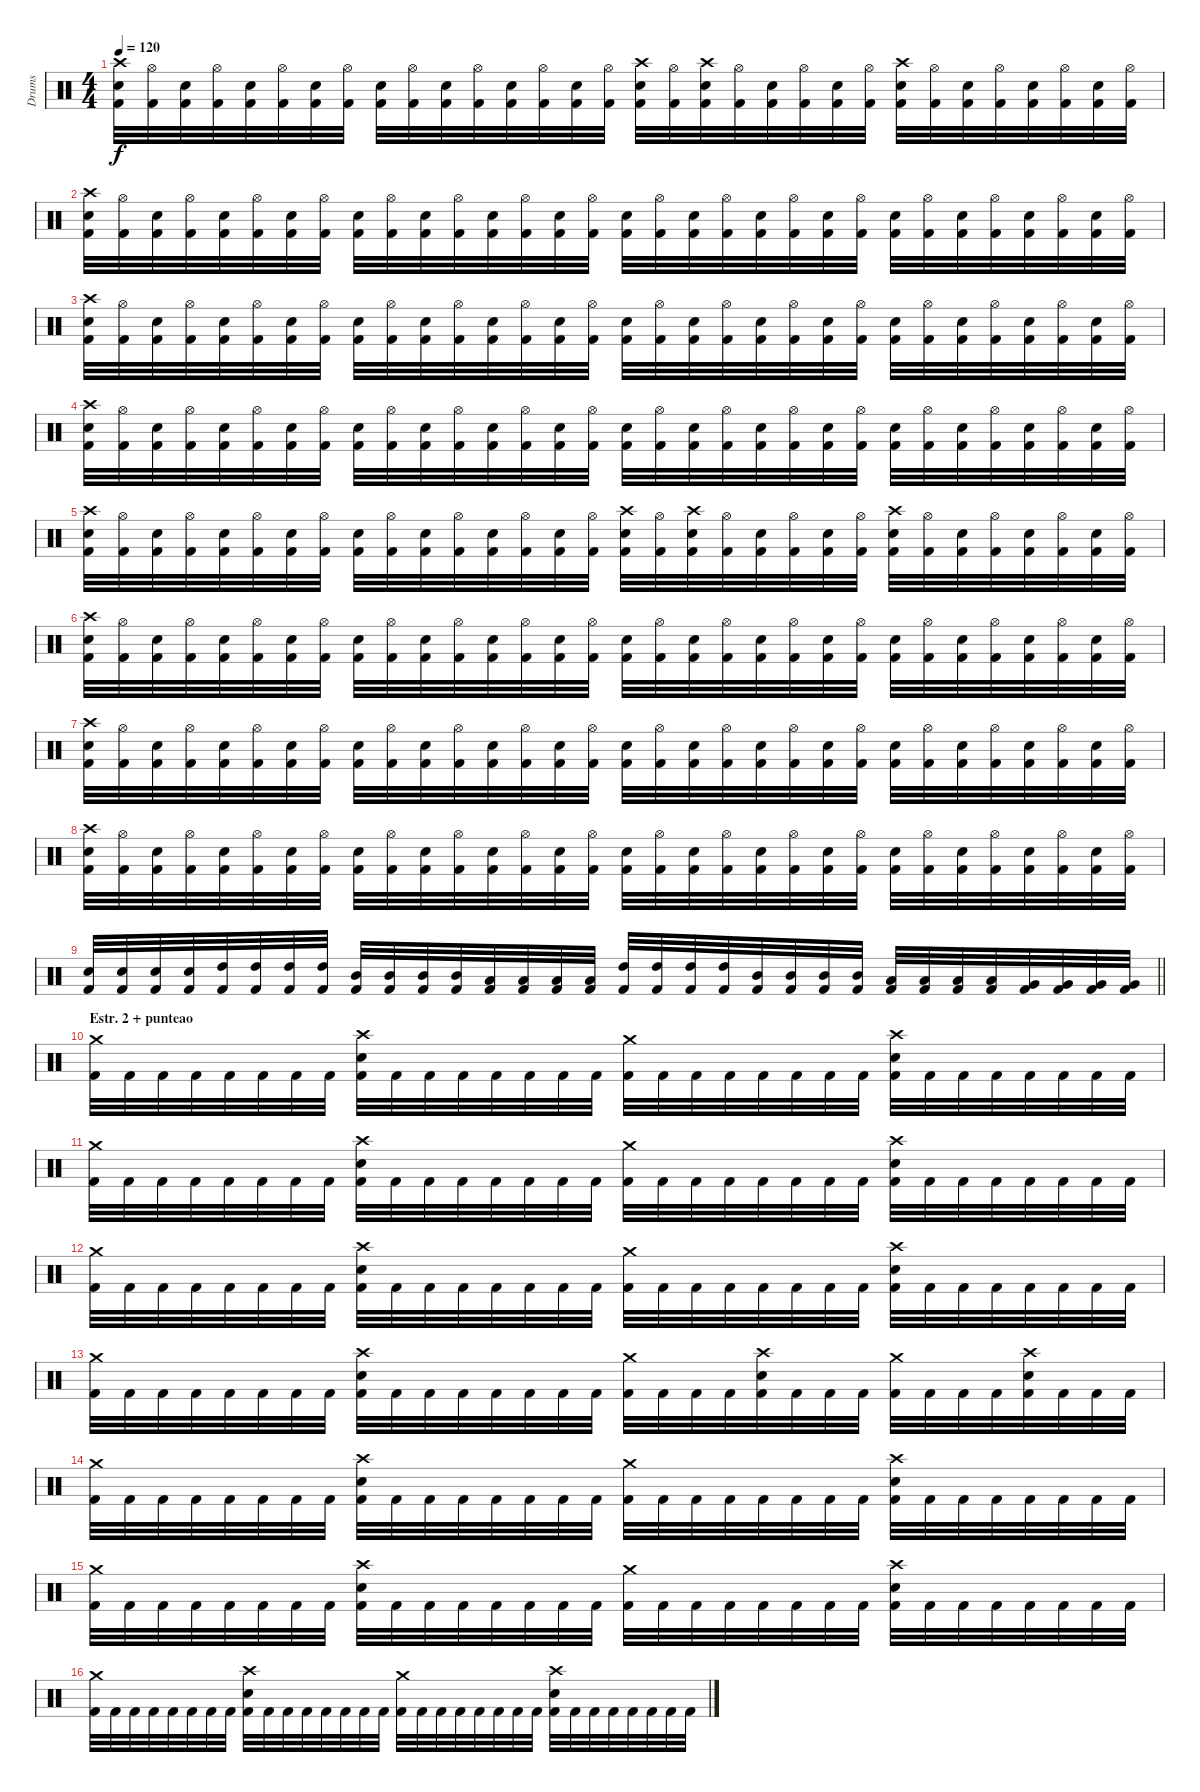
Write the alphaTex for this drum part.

\track ("Drums" "Drums") {instrument percussion}
\staff {score}
\articulation defaults
\ts (4 4)
\tempo 120
\clef neutral
\ks c
("Kick (hit) 2" "Electric Snare (hit)" "Crash high (hit)").32{dy f} ("Kick (hit) 2" "Hi-Hat (open)").32 ("Kick (hit) 2" "Electric Snare (hit)").32 ("Kick (hit) 2" "Hi-Hat (open)").32 ("Kick (hit) 2" "Electric Snare (hit)").32 ("Kick (hit) 2" "Hi-Hat (open)").32 ("Kick (hit) 2" "Electric Snare (hit)").32 ("Kick (hit) 2" "Hi-Hat (open)").32 ("Kick (hit) 2" "Electric Snare (hit)").32 ("Kick (hit) 2" "Hi-Hat (open)").32 ("Kick (hit) 2" "Electric Snare (hit)").32 ("Kick (hit) 2" "Hi-Hat (open)").32 ("Kick (hit) 2" "Electric Snare (hit)").32 ("Kick (hit) 2" "Hi-Hat (open)").32 ("Kick (hit) 2" "Electric Snare (hit)").32 ("Kick (hit) 2" "Hi-Hat (open)").32 ("Kick (hit) 2" "Electric Snare (hit)" "Crash high (hit)").32 ("Kick (hit) 2" "Hi-Hat (open)").32 ("Kick (hit) 2" "Electric Snare (hit)" "Crash high (hit)").32 ("Kick (hit) 2" "Hi-Hat (open)").32 ("Kick (hit) 2" "Electric Snare (hit)").32 ("Kick (hit) 2" "Hi-Hat (open)").32 ("Kick (hit) 2" "Electric Snare (hit)").32 ("Kick (hit) 2" "Hi-Hat (open)").32 ("Kick (hit) 2" "Electric Snare (hit)" "Crash high (hit)").32 ("Kick (hit) 2" "Hi-Hat (open)").32 ("Kick (hit) 2" "Electric Snare (hit)").32 ("Kick (hit) 2" "Hi-Hat (open)").32 ("Kick (hit) 2" "Electric Snare (hit)").32 ("Kick (hit) 2" "Hi-Hat (open)").32 ("Kick (hit) 2" "Electric Snare (hit)").32 ("Kick (hit) 2" "Hi-Hat (open)").32 |
("Kick (hit) 2" "Electric Snare (hit)" "Crash high (hit)").32 ("Kick (hit) 2" "Hi-Hat (open)").32 ("Kick (hit) 2" "Electric Snare (hit)").32 ("Kick (hit) 2" "Hi-Hat (open)").32 ("Kick (hit) 2" "Electric Snare (hit)").32 ("Kick (hit) 2" "Hi-Hat (open)").32 ("Kick (hit) 2" "Electric Snare (hit)").32 ("Kick (hit) 2" "Hi-Hat (open)").32 ("Kick (hit) 2" "Electric Snare (hit)").32 ("Kick (hit) 2" "Hi-Hat (open)").32 ("Kick (hit) 2" "Electric Snare (hit)").32 ("Kick (hit) 2" "Hi-Hat (open)").32 ("Kick (hit) 2" "Electric Snare (hit)").32 ("Kick (hit) 2" "Hi-Hat (open)").32 ("Kick (hit) 2" "Electric Snare (hit)").32 ("Kick (hit) 2" "Hi-Hat (open)").32 ("Kick (hit) 2" "Electric Snare (hit)").32 ("Kick (hit) 2" "Hi-Hat (open)").32 ("Kick (hit) 2" "Electric Snare (hit)").32 ("Kick (hit) 2" "Hi-Hat (open)").32 ("Kick (hit) 2" "Electric Snare (hit)").32 ("Kick (hit) 2" "Hi-Hat (open)").32 ("Kick (hit) 2" "Electric Snare (hit)").32 ("Kick (hit) 2" "Hi-Hat (open)").32 ("Kick (hit) 2" "Electric Snare (hit)").32 ("Kick (hit) 2" "Hi-Hat (open)").32 ("Kick (hit) 2" "Electric Snare (hit)").32 ("Kick (hit) 2" "Hi-Hat (open)").32 ("Kick (hit) 2" "Electric Snare (hit)").32 ("Kick (hit) 2" "Hi-Hat (open)").32 ("Kick (hit) 2" "Electric Snare (hit)").32 ("Kick (hit) 2" "Hi-Hat (open)").32 |
("Kick (hit) 2" "Electric Snare (hit)" "Crash high (hit)").32 ("Kick (hit) 2" "Hi-Hat (open)").32 ("Kick (hit) 2" "Electric Snare (hit)").32 ("Kick (hit) 2" "Hi-Hat (open)").32 ("Kick (hit) 2" "Electric Snare (hit)").32 ("Kick (hit) 2" "Hi-Hat (open)").32 ("Kick (hit) 2" "Electric Snare (hit)").32 ("Kick (hit) 2" "Hi-Hat (open)").32 ("Kick (hit) 2" "Electric Snare (hit)").32 ("Kick (hit) 2" "Hi-Hat (open)").32 ("Kick (hit) 2" "Electric Snare (hit)").32 ("Kick (hit) 2" "Hi-Hat (open)").32 ("Kick (hit) 2" "Electric Snare (hit)").32 ("Kick (hit) 2" "Hi-Hat (open)").32 ("Kick (hit) 2" "Electric Snare (hit)").32 ("Kick (hit) 2" "Hi-Hat (open)").32 ("Kick (hit) 2" "Electric Snare (hit)").32 ("Kick (hit) 2" "Hi-Hat (open)").32 ("Kick (hit) 2" "Electric Snare (hit)").32 ("Kick (hit) 2" "Hi-Hat (open)").32 ("Kick (hit) 2" "Electric Snare (hit)").32 ("Kick (hit) 2" "Hi-Hat (open)").32 ("Kick (hit) 2" "Electric Snare (hit)").32 ("Kick (hit) 2" "Hi-Hat (open)").32 ("Kick (hit) 2" "Electric Snare (hit)").32 ("Kick (hit) 2" "Hi-Hat (open)").32 ("Kick (hit) 2" "Electric Snare (hit)").32 ("Kick (hit) 2" "Hi-Hat (open)").32 ("Kick (hit) 2" "Electric Snare (hit)").32 ("Kick (hit) 2" "Hi-Hat (open)").32 ("Kick (hit) 2" "Electric Snare (hit)").32 ("Kick (hit) 2" "Hi-Hat (open)").32 |
("Kick (hit) 2" "Electric Snare (hit)" "Crash high (hit)").32 ("Kick (hit) 2" "Hi-Hat (open)").32 ("Kick (hit) 2" "Electric Snare (hit)").32 ("Kick (hit) 2" "Hi-Hat (open)").32 ("Kick (hit) 2" "Electric Snare (hit)").32 ("Kick (hit) 2" "Hi-Hat (open)").32 ("Kick (hit) 2" "Electric Snare (hit)").32 ("Kick (hit) 2" "Hi-Hat (open)").32 ("Kick (hit) 2" "Electric Snare (hit)").32 ("Kick (hit) 2" "Hi-Hat (open)").32 ("Kick (hit) 2" "Electric Snare (hit)").32 ("Kick (hit) 2" "Hi-Hat (open)").32 ("Kick (hit) 2" "Electric Snare (hit)").32 ("Kick (hit) 2" "Hi-Hat (open)").32 ("Kick (hit) 2" "Electric Snare (hit)").32 ("Kick (hit) 2" "Hi-Hat (open)").32 ("Kick (hit) 2" "Electric Snare (hit)").32 ("Kick (hit) 2" "Hi-Hat (open)").32 ("Kick (hit) 2" "Electric Snare (hit)").32 ("Kick (hit) 2" "Hi-Hat (open)").32 ("Kick (hit) 2" "Electric Snare (hit)").32 ("Kick (hit) 2" "Hi-Hat (open)").32 ("Kick (hit) 2" "Electric Snare (hit)").32 ("Kick (hit) 2" "Hi-Hat (open)").32 ("Kick (hit) 2" "Electric Snare (hit)").32 ("Kick (hit) 2" "Hi-Hat (open)").32 ("Kick (hit) 2" "Electric Snare (hit)").32 ("Kick (hit) 2" "Hi-Hat (open)").32 ("Kick (hit) 2" "Electric Snare (hit)").32 ("Kick (hit) 2" "Hi-Hat (open)").32 ("Kick (hit) 2" "Electric Snare (hit)").32 ("Kick (hit) 2" "Hi-Hat (open)").32 |
("Kick (hit) 2" "Electric Snare (hit)" "Crash high (hit)").32 ("Kick (hit) 2" "Hi-Hat (open)").32 ("Kick (hit) 2" "Electric Snare (hit)").32 ("Kick (hit) 2" "Hi-Hat (open)").32 ("Kick (hit) 2" "Electric Snare (hit)").32 ("Kick (hit) 2" "Hi-Hat (open)").32 ("Kick (hit) 2" "Electric Snare (hit)").32 ("Kick (hit) 2" "Hi-Hat (open)").32 ("Kick (hit) 2" "Electric Snare (hit)").32 ("Kick (hit) 2" "Hi-Hat (open)").32 ("Kick (hit) 2" "Electric Snare (hit)").32 ("Kick (hit) 2" "Hi-Hat (open)").32 ("Kick (hit) 2" "Electric Snare (hit)").32 ("Kick (hit) 2" "Hi-Hat (open)").32 ("Kick (hit) 2" "Electric Snare (hit)").32 ("Kick (hit) 2" "Hi-Hat (open)").32 ("Kick (hit) 2" "Electric Snare (hit)" "Crash high (hit)").32 ("Kick (hit) 2" "Hi-Hat (open)").32 ("Kick (hit) 2" "Electric Snare (hit)" "Crash high (hit)").32 ("Kick (hit) 2" "Hi-Hat (open)").32 ("Kick (hit) 2" "Electric Snare (hit)").32 ("Kick (hit) 2" "Hi-Hat (open)").32 ("Kick (hit) 2" "Electric Snare (hit)").32 ("Kick (hit) 2" "Hi-Hat (open)").32 ("Kick (hit) 2" "Electric Snare (hit)" "Crash high (hit)").32 ("Kick (hit) 2" "Hi-Hat (open)").32 ("Kick (hit) 2" "Electric Snare (hit)").32 ("Kick (hit) 2" "Hi-Hat (open)").32 ("Kick (hit) 2" "Electric Snare (hit)").32 ("Kick (hit) 2" "Hi-Hat (open)").32 ("Kick (hit) 2" "Electric Snare (hit)").32 ("Kick (hit) 2" "Hi-Hat (open)").32 |
("Kick (hit) 2" "Electric Snare (hit)" "Crash high (hit)").32 ("Kick (hit) 2" "Hi-Hat (open)").32 ("Kick (hit) 2" "Electric Snare (hit)").32 ("Kick (hit) 2" "Hi-Hat (open)").32 ("Kick (hit) 2" "Electric Snare (hit)").32 ("Kick (hit) 2" "Hi-Hat (open)").32 ("Kick (hit) 2" "Electric Snare (hit)").32 ("Kick (hit) 2" "Hi-Hat (open)").32 ("Kick (hit) 2" "Electric Snare (hit)").32 ("Kick (hit) 2" "Hi-Hat (open)").32 ("Kick (hit) 2" "Electric Snare (hit)").32 ("Kick (hit) 2" "Hi-Hat (open)").32 ("Kick (hit) 2" "Electric Snare (hit)").32 ("Kick (hit) 2" "Hi-Hat (open)").32 ("Kick (hit) 2" "Electric Snare (hit)").32 ("Kick (hit) 2" "Hi-Hat (open)").32 ("Kick (hit) 2" "Electric Snare (hit)").32 ("Kick (hit) 2" "Hi-Hat (open)").32 ("Kick (hit) 2" "Electric Snare (hit)").32 ("Kick (hit) 2" "Hi-Hat (open)").32 ("Kick (hit) 2" "Electric Snare (hit)").32 ("Kick (hit) 2" "Hi-Hat (open)").32 ("Kick (hit) 2" "Electric Snare (hit)").32 ("Kick (hit) 2" "Hi-Hat (open)").32 ("Kick (hit) 2" "Electric Snare (hit)").32 ("Kick (hit) 2" "Hi-Hat (open)").32 ("Kick (hit) 2" "Electric Snare (hit)").32 ("Kick (hit) 2" "Hi-Hat (open)").32 ("Kick (hit) 2" "Electric Snare (hit)").32 ("Kick (hit) 2" "Hi-Hat (open)").32 ("Kick (hit) 2" "Electric Snare (hit)").32 ("Kick (hit) 2" "Hi-Hat (open)").32 |
("Kick (hit) 2" "Electric Snare (hit)" "Crash high (hit)").32 ("Kick (hit) 2" "Hi-Hat (open)").32 ("Kick (hit) 2" "Electric Snare (hit)").32 ("Kick (hit) 2" "Hi-Hat (open)").32 ("Kick (hit) 2" "Electric Snare (hit)").32 ("Kick (hit) 2" "Hi-Hat (open)").32 ("Kick (hit) 2" "Electric Snare (hit)").32 ("Kick (hit) 2" "Hi-Hat (open)").32 ("Kick (hit) 2" "Electric Snare (hit)").32 ("Kick (hit) 2" "Hi-Hat (open)").32 ("Kick (hit) 2" "Electric Snare (hit)").32 ("Kick (hit) 2" "Hi-Hat (open)").32 ("Kick (hit) 2" "Electric Snare (hit)").32 ("Kick (hit) 2" "Hi-Hat (open)").32 ("Kick (hit) 2" "Electric Snare (hit)").32 ("Kick (hit) 2" "Hi-Hat (open)").32 ("Kick (hit) 2" "Electric Snare (hit)").32 ("Kick (hit) 2" "Hi-Hat (open)").32 ("Kick (hit) 2" "Electric Snare (hit)").32 ("Kick (hit) 2" "Hi-Hat (open)").32 ("Kick (hit) 2" "Electric Snare (hit)").32 ("Kick (hit) 2" "Hi-Hat (open)").32 ("Kick (hit) 2" "Electric Snare (hit)").32 ("Kick (hit) 2" "Hi-Hat (open)").32 ("Kick (hit) 2" "Electric Snare (hit)").32 ("Kick (hit) 2" "Hi-Hat (open)").32 ("Kick (hit) 2" "Electric Snare (hit)").32 ("Kick (hit) 2" "Hi-Hat (open)").32 ("Kick (hit) 2" "Electric Snare (hit)").32 ("Kick (hit) 2" "Hi-Hat (open)").32 ("Kick (hit) 2" "Electric Snare (hit)").32 ("Kick (hit) 2" "Hi-Hat (open)").32 |
("Kick (hit) 2" "Electric Snare (hit)" "Crash high (hit)").32 ("Kick (hit) 2" "Hi-Hat (open)").32 ("Kick (hit) 2" "Electric Snare (hit)").32 ("Kick (hit) 2" "Hi-Hat (open)").32 ("Kick (hit) 2" "Electric Snare (hit)").32 ("Kick (hit) 2" "Hi-Hat (open)").32 ("Kick (hit) 2" "Electric Snare (hit)").32 ("Kick (hit) 2" "Hi-Hat (open)").32 ("Kick (hit) 2" "Electric Snare (hit)").32 ("Kick (hit) 2" "Hi-Hat (open)").32 ("Kick (hit) 2" "Electric Snare (hit)").32 ("Kick (hit) 2" "Hi-Hat (open)").32 ("Kick (hit) 2" "Electric Snare (hit)").32 ("Kick (hit) 2" "Hi-Hat (open)").32 ("Kick (hit) 2" "Electric Snare (hit)").32 ("Kick (hit) 2" "Hi-Hat (open)").32 ("Kick (hit) 2" "Electric Snare (hit)").32 ("Kick (hit) 2" "Hi-Hat (open)").32 ("Kick (hit) 2" "Electric Snare (hit)").32 ("Kick (hit) 2" "Hi-Hat (open)").32 ("Kick (hit) 2" "Electric Snare (hit)").32 ("Kick (hit) 2" "Hi-Hat (open)").32 ("Kick (hit) 2" "Electric Snare (hit)").32 ("Kick (hit) 2" "Hi-Hat (open)").32 ("Kick (hit) 2" "Electric Snare (hit)").32 ("Kick (hit) 2" "Hi-Hat (open)").32 ("Kick (hit) 2" "Electric Snare (hit)").32 ("Kick (hit) 2" "Hi-Hat (open)").32 ("Kick (hit) 2" "Electric Snare (hit)").32 ("Kick (hit) 2" "Hi-Hat (open)").32 ("Kick (hit) 2" "Electric Snare (hit)").32 ("Kick (hit) 2" "Hi-Hat (open)").32 |
\barLineRight lightlight
("Kick (hit) 2" "Electric Snare (hit)").32 ("Kick (hit) 2" "Electric Snare (hit)").32 ("Kick (hit) 2" "Electric Snare (hit)").32 ("Kick (hit) 2" "Electric Snare (hit)").32 ("Kick (hit) 2" "High Tom (hit)").32 ("Kick (hit) 2" "High Tom (hit)").32 ("Kick (hit) 2" "High Tom (hit)").32 ("Kick (hit) 2" "High Tom (hit)").32 ("Kick (hit) 2" "Mid Tom (hit)").32 ("Kick (hit) 2" "Mid Tom (hit)").32 ("Kick (hit) 2" "Mid Tom (hit)").32 ("Kick (hit) 2" "Mid Tom (hit)").32 ("Kick (hit) 2" "Low Tom (hit)").32 ("Kick (hit) 2" "Low Tom (hit)").32 ("Kick (hit) 2" "Low Tom (hit)").32 ("Kick (hit) 2" "Low Tom (hit)").32 ("Kick (hit) 2" "High Tom (hit)").32 ("Kick (hit) 2" "High Tom (hit)").32 ("Kick (hit) 2" "High Tom (hit)").32 ("Kick (hit) 2" "High Tom (hit)").32 ("Kick (hit) 2" "Mid Tom (hit)").32 ("Kick (hit) 2" "Mid Tom (hit)").32 ("Kick (hit) 2" "Mid Tom (hit)").32 ("Kick (hit) 2" "Mid Tom (hit)").32 ("Kick (hit) 2" "Low Tom (hit)").32 ("Kick (hit) 2" "Low Tom (hit)").32 ("Kick (hit) 2" "Low Tom (hit)").32 ("Kick (hit) 2" "Low Tom (hit)").32 ("Kick (hit) 2" "Very Low Tom (hit)").32 ("Kick (hit) 2" "Very Low Tom (hit)").32 ("Kick (hit) 2" "Very Low Tom (hit)").32 ("Kick (hit) 2" "Very Low Tom (hit)").32 |
\section ("" "Estr. 2 + punteao")
("Kick (hit) 2" "Crash medium (hit)").32 "Kick (hit) 2".32 "Kick (hit) 2".32 "Kick (hit) 2".32 "Kick (hit) 2".32 "Kick (hit) 2".32 "Kick (hit) 2".32 "Kick (hit) 2".32 ("Kick (hit) 2" "Electric Snare (hit)" "Crash high (hit)").32 "Kick (hit) 2".32 "Kick (hit) 2".32 "Kick (hit) 2".32 "Kick (hit) 2".32 "Kick (hit) 2".32 "Kick (hit) 2".32 "Kick (hit) 2".32 ("Kick (hit) 2" "Crash medium (hit)").32 "Kick (hit) 2".32 "Kick (hit) 2".32 "Kick (hit) 2".32 "Kick (hit) 2".32 "Kick (hit) 2".32 "Kick (hit) 2".32 "Kick (hit) 2".32 ("Kick (hit) 2" "Electric Snare (hit)" "Crash high (hit)").32 "Kick (hit) 2".32 "Kick (hit) 2".32 "Kick (hit) 2".32 "Kick (hit) 2".32 "Kick (hit) 2".32 "Kick (hit) 2".32 "Kick (hit) 2".32 |
("Kick (hit) 2" "Crash medium (hit)").32 "Kick (hit) 2".32 "Kick (hit) 2".32 "Kick (hit) 2".32 "Kick (hit) 2".32 "Kick (hit) 2".32 "Kick (hit) 2".32 "Kick (hit) 2".32 ("Kick (hit) 2" "Electric Snare (hit)" "Crash high (hit)").32 "Kick (hit) 2".32 "Kick (hit) 2".32 "Kick (hit) 2".32 "Kick (hit) 2".32 "Kick (hit) 2".32 "Kick (hit) 2".32 "Kick (hit) 2".32 ("Kick (hit) 2" "Crash medium (hit)").32 "Kick (hit) 2".32 "Kick (hit) 2".32 "Kick (hit) 2".32 "Kick (hit) 2".32 "Kick (hit) 2".32 "Kick (hit) 2".32 "Kick (hit) 2".32 ("Kick (hit) 2" "Electric Snare (hit)" "Crash high (hit)").32 "Kick (hit) 2".32 "Kick (hit) 2".32 "Kick (hit) 2".32 "Kick (hit) 2".32 "Kick (hit) 2".32 "Kick (hit) 2".32 "Kick (hit) 2".32 |
("Kick (hit) 2" "Crash medium (hit)").32 "Kick (hit) 2".32 "Kick (hit) 2".32 "Kick (hit) 2".32 "Kick (hit) 2".32 "Kick (hit) 2".32 "Kick (hit) 2".32 "Kick (hit) 2".32 ("Kick (hit) 2" "Electric Snare (hit)" "Crash high (hit)").32 "Kick (hit) 2".32 "Kick (hit) 2".32 "Kick (hit) 2".32 "Kick (hit) 2".32 "Kick (hit) 2".32 "Kick (hit) 2".32 "Kick (hit) 2".32 ("Kick (hit) 2" "Crash medium (hit)").32 "Kick (hit) 2".32 "Kick (hit) 2".32 "Kick (hit) 2".32 "Kick (hit) 2".32 "Kick (hit) 2".32 "Kick (hit) 2".32 "Kick (hit) 2".32 ("Kick (hit) 2" "Electric Snare (hit)" "Crash high (hit)").32 "Kick (hit) 2".32 "Kick (hit) 2".32 "Kick (hit) 2".32 "Kick (hit) 2".32 "Kick (hit) 2".32 "Kick (hit) 2".32 "Kick (hit) 2".32 |
("Kick (hit) 2" "Crash medium (hit)").32 "Kick (hit) 2".32 "Kick (hit) 2".32 "Kick (hit) 2".32 "Kick (hit) 2".32 "Kick (hit) 2".32 "Kick (hit) 2".32 "Kick (hit) 2".32 ("Kick (hit) 2" "Electric Snare (hit)" "Crash high (hit)").32 "Kick (hit) 2".32 "Kick (hit) 2".32 "Kick (hit) 2".32 "Kick (hit) 2".32 "Kick (hit) 2".32 "Kick (hit) 2".32 "Kick (hit) 2".32 ("Kick (hit) 2" "Crash medium (hit)").32 "Kick (hit) 2".32 "Kick (hit) 2".32 "Kick (hit) 2".32 ("Kick (hit) 2" "Electric Snare (hit)" "Crash high (hit)").32 "Kick (hit) 2".32 "Kick (hit) 2".32 "Kick (hit) 2".32 ("Kick (hit) 2" "Crash medium (hit)").32 "Kick (hit) 2".32 "Kick (hit) 2".32 "Kick (hit) 2".32 ("Kick (hit) 2" "Electric Snare (hit)" "Crash high (hit)").32 "Kick (hit) 2".32 "Kick (hit) 2".32 "Kick (hit) 2".32 |
("Kick (hit) 2" "Crash medium (hit)").32 "Kick (hit) 2".32 "Kick (hit) 2".32 "Kick (hit) 2".32 "Kick (hit) 2".32 "Kick (hit) 2".32 "Kick (hit) 2".32 "Kick (hit) 2".32 ("Kick (hit) 2" "Electric Snare (hit)" "Crash high (hit)").32 "Kick (hit) 2".32 "Kick (hit) 2".32 "Kick (hit) 2".32 "Kick (hit) 2".32 "Kick (hit) 2".32 "Kick (hit) 2".32 "Kick (hit) 2".32 ("Kick (hit) 2" "Crash medium (hit)").32 "Kick (hit) 2".32 "Kick (hit) 2".32 "Kick (hit) 2".32 "Kick (hit) 2".32 "Kick (hit) 2".32 "Kick (hit) 2".32 "Kick (hit) 2".32 ("Kick (hit) 2" "Electric Snare (hit)" "Crash high (hit)").32 "Kick (hit) 2".32 "Kick (hit) 2".32 "Kick (hit) 2".32 "Kick (hit) 2".32 "Kick (hit) 2".32 "Kick (hit) 2".32 "Kick (hit) 2".32 |
("Kick (hit) 2" "Crash medium (hit)").32 "Kick (hit) 2".32 "Kick (hit) 2".32 "Kick (hit) 2".32 "Kick (hit) 2".32 "Kick (hit) 2".32 "Kick (hit) 2".32 "Kick (hit) 2".32 ("Kick (hit) 2" "Electric Snare (hit)" "Crash high (hit)").32 "Kick (hit) 2".32 "Kick (hit) 2".32 "Kick (hit) 2".32 "Kick (hit) 2".32 "Kick (hit) 2".32 "Kick (hit) 2".32 "Kick (hit) 2".32 ("Kick (hit) 2" "Crash medium (hit)").32 "Kick (hit) 2".32 "Kick (hit) 2".32 "Kick (hit) 2".32 "Kick (hit) 2".32 "Kick (hit) 2".32 "Kick (hit) 2".32 "Kick (hit) 2".32 ("Kick (hit) 2" "Electric Snare (hit)" "Crash high (hit)").32 "Kick (hit) 2".32 "Kick (hit) 2".32 "Kick (hit) 2".32 "Kick (hit) 2".32 "Kick (hit) 2".32 "Kick (hit) 2".32 "Kick (hit) 2".32 |
("Kick (hit) 2" "Crash medium (hit)").32 "Kick (hit) 2".32 "Kick (hit) 2".32 "Kick (hit) 2".32 "Kick (hit) 2".32 "Kick (hit) 2".32 "Kick (hit) 2".32 "Kick (hit) 2".32 ("Kick (hit) 2" "Electric Snare (hit)" "Crash high (hit)").32 "Kick (hit) 2".32 "Kick (hit) 2".32 "Kick (hit) 2".32 "Kick (hit) 2".32 "Kick (hit) 2".32 "Kick (hit) 2".32 "Kick (hit) 2".32 ("Kick (hit) 2" "Crash medium (hit)").32 "Kick (hit) 2".32 "Kick (hit) 2".32 "Kick (hit) 2".32 "Kick (hit) 2".32 "Kick (hit) 2".32 "Kick (hit) 2".32 "Kick (hit) 2".32 ("Kick (hit) 2" "Electric Snare (hit)" "Crash high (hit)").32 "Kick (hit) 2".32 "Kick (hit) 2".32 "Kick (hit) 2".32 "Kick (hit) 2".32 "Kick (hit) 2".32 "Kick (hit) 2".32 "Kick (hit) 2".32
